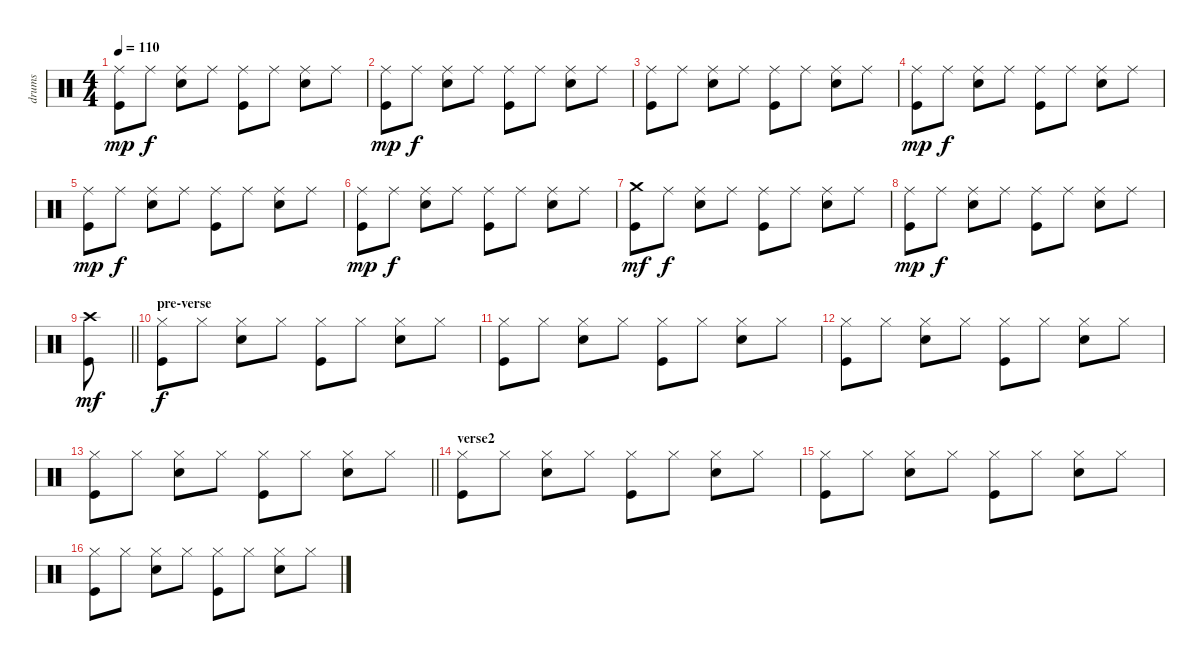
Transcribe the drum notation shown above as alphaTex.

\track ("drums" "drums") {instrument percussion}
\staff {score}
\articulation defaults
\ts (4 4)
\tempo 110
\clef neutral
\ks c
("Ride (middle)" "Kick (hit)").8{dy mp} "Ride (middle)".8{dy f} ("Ride (middle)" "Snare (hit) 2").8 "Ride (middle)".8 ("Ride (middle)" "Kick (hit)").8 "Ride (middle)".8 ("Ride (middle)" "Snare (hit) 2").8 "Ride (middle)".8 |
("Ride (middle)" "Kick (hit)").8{dy mp} "Ride (middle)".8{dy f} ("Ride (middle)" "Snare (hit) 2").8 "Ride (middle)".8 ("Ride (middle)" "Kick (hit)").8 "Ride (middle)".8 ("Ride (middle)" "Snare (hit) 2").8 "Ride (middle)".8 |
("Ride (middle)" "Kick (hit)").8 "Ride (middle)".8 ("Ride (middle)" "Snare (hit) 2").8 "Ride (middle)".8 ("Ride (middle)" "Kick (hit)").8 "Ride (middle)".8 ("Ride (middle)" "Snare (hit) 2").8 "Ride (middle)".8 |
("Ride (middle)" "Kick (hit)").8{dy mp} "Ride (middle)".8{dy f} ("Ride (middle)" "Snare (hit) 2").8 "Ride (middle)".8 ("Ride (middle)" "Kick (hit)").8 "Ride (middle)".8 ("Ride (middle)" "Snare (hit) 2").8 "Ride (middle)".8 |
("Ride (middle)" "Kick (hit)").8{dy mp} "Ride (middle)".8{dy f} ("Ride (middle)" "Snare (hit) 2").8 "Ride (middle)".8 ("Ride (middle)" "Kick (hit)").8 "Ride (middle)".8 ("Ride (middle)" "Snare (hit) 2").8 "Ride (middle)".8 |
("Ride (middle)" "Kick (hit)").8{dy mp} "Ride (middle)".8{dy f} ("Ride (middle)" "Snare (hit) 2").8 "Ride (middle)".8 ("Ride (middle)" "Kick (hit)").8 "Ride (middle)".8 ("Ride (middle)" "Snare (hit) 2").8 "Ride (middle)".8 |
("Crash medium (hit)" "Kick (hit)").8{dy mf} "Ride (middle)".8{dy f} ("Ride (middle)" "Snare (hit) 2").8 "Ride (middle)".8 ("Ride (middle)" "Kick (hit)").8 "Ride (middle)".8 ("Ride (middle)" "Snare (hit) 2").8 "Ride (middle)".8 |
("Ride (middle)" "Kick (hit)").8{dy mp} "Ride (middle)".8{dy f} ("Ride (middle)" "Snare (hit) 2").8 "Ride (middle)".8 ("Ride (middle)" "Kick (hit)").8 "Ride (middle)".8 ("Ride (middle)" "Snare (hit) 2").8 "Ride (middle)".8 |
\barLineRight lightlight
("Crash high (hit)" "Kick (hit)").8{dy mf} |
\section ("" "pre-verse")
("Hi-Hat (closed)" "Kick (hit)").8{dy f} "Hi-Hat (closed)".8 ("Hi-Hat (closed)" "Snare (hit) 2").8 "Hi-Hat (closed)".8 ("Hi-Hat (closed)" "Kick (hit)").8 "Hi-Hat (closed)".8 ("Hi-Hat (closed)" "Snare (hit) 2").8 "Hi-Hat (closed)".8 |
("Hi-Hat (closed)" "Kick (hit)").8 "Hi-Hat (closed)".8 ("Hi-Hat (closed)" "Snare (hit) 2").8 "Hi-Hat (closed)".8 ("Hi-Hat (closed)" "Kick (hit)").8 "Hi-Hat (closed)".8 ("Hi-Hat (closed)" "Snare (hit) 2").8 "Hi-Hat (closed)".8 |
("Hi-Hat (closed)" "Kick (hit)").8 "Hi-Hat (closed)".8 ("Hi-Hat (closed)" "Snare (hit) 2").8 "Hi-Hat (closed)".8 ("Hi-Hat (closed)" "Kick (hit)").8 "Hi-Hat (closed)".8 ("Hi-Hat (closed)" "Snare (hit) 2").8 "Hi-Hat (closed)".8 |
\barLineRight lightlight
("Hi-Hat (closed)" "Kick (hit)").8 "Hi-Hat (closed)".8 ("Hi-Hat (closed)" "Snare (hit) 2").8 "Hi-Hat (closed)".8 ("Hi-Hat (closed)" "Kick (hit)").8 "Hi-Hat (closed)".8 ("Hi-Hat (closed)" "Snare (hit) 2").8 "Hi-Hat (closed)".8 |
\section ("" "verse2")
("Hi-Hat (closed)" "Kick (hit)").8 "Hi-Hat (closed)".8 ("Hi-Hat (closed)" "Snare (hit) 2").8 "Hi-Hat (closed)".8 ("Hi-Hat (closed)" "Kick (hit)").8 "Hi-Hat (closed)".8 ("Hi-Hat (closed)" "Snare (hit) 2").8 "Hi-Hat (closed)".8 |
("Hi-Hat (closed)" "Kick (hit)").8 "Hi-Hat (closed)".8 ("Hi-Hat (closed)" "Snare (hit) 2").8 "Hi-Hat (closed)".8 ("Hi-Hat (closed)" "Kick (hit)").8 "Hi-Hat (closed)".8 ("Hi-Hat (closed)" "Snare (hit) 2").8 "Hi-Hat (closed)".8 |
("Hi-Hat (closed)" "Kick (hit)").8 "Hi-Hat (closed)".8 ("Hi-Hat (closed)" "Snare (hit) 2").8 "Hi-Hat (closed)".8 ("Hi-Hat (closed)" "Kick (hit)").8 "Hi-Hat (closed)".8 ("Hi-Hat (closed)" "Snare (hit) 2").8 "Hi-Hat (closed)".8
